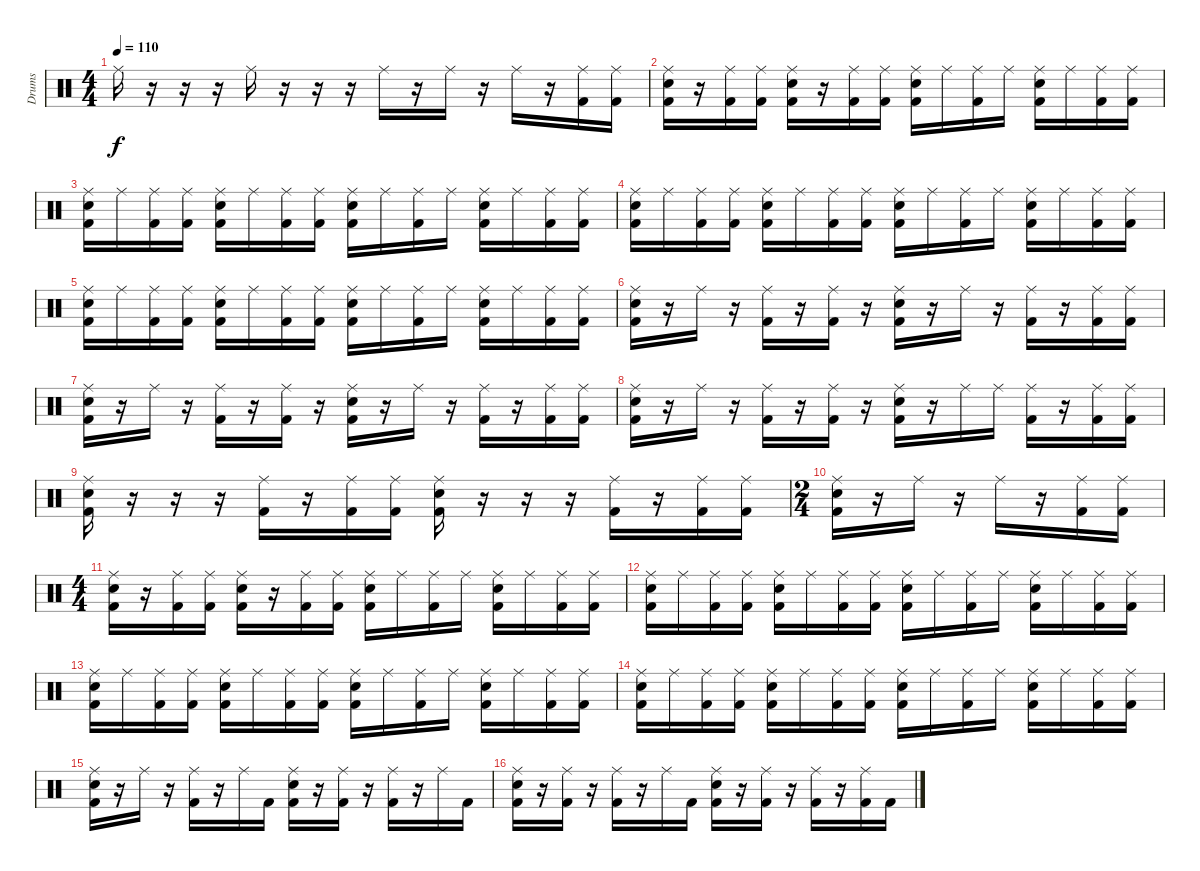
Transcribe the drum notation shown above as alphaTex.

\track ("Drums" "Drums") {instrument percussion}
\staff {score}
\articulation defaults
\ts (4 4)
\tempo 110
\clef neutral
\ks c "Ride (middle)".16{dy f}
r.16 r.16 r.16 "Ride (middle)".16 r.16 r.16 r.16 "Ride (middle)".16 r.16 "Ride (middle)".16 r.16 "Ride (middle)".16 r.16 ("Ride (middle)" "Kick (hit) 2").16 ("Ride (middle)" "Kick (hit) 2").16 |
("Ride (middle)" "Electric Snare (hit)" "Kick (hit) 2").16 r.16 ("Ride (middle)" "Kick (hit) 2").16 ("Ride (middle)" "Kick (hit) 2").16 ("Ride (middle)" "Electric Snare (hit)" "Kick (hit) 2").16 r.16 ("Ride (middle)" "Kick (hit) 2").16 ("Ride (middle)" "Kick (hit) 2").16 ("Ride (middle)" "Electric Snare (hit)" "Kick (hit) 2").16 "Ride (middle)".16 ("Ride (middle)" "Kick (hit) 2").16 "Ride (middle)".16 ("Ride (middle)" "Electric Snare (hit)" "Kick (hit) 2").16 "Ride (middle)".16 ("Ride (middle)" "Kick (hit) 2").16 ("Ride (middle)" "Kick (hit) 2").16 |
("Ride (middle)" "Electric Snare (hit)" "Kick (hit) 2").16 "Ride (middle)".16 ("Ride (middle)" "Kick (hit) 2").16 ("Ride (middle)" "Kick (hit) 2").16 ("Ride (middle)" "Electric Snare (hit)" "Kick (hit) 2").16 "Ride (middle)".16 ("Ride (middle)" "Kick (hit) 2").16 ("Ride (middle)" "Kick (hit) 2").16 ("Ride (middle)" "Electric Snare (hit)" "Kick (hit) 2").16 "Ride (middle)".16 ("Ride (middle)" "Kick (hit) 2").16 "Ride (middle)".16 ("Ride (middle)" "Electric Snare (hit)" "Kick (hit) 2").16 "Ride (middle)".16 ("Ride (middle)" "Kick (hit) 2").16 ("Ride (middle)" "Kick (hit) 2").16 |
("Ride (middle)" "Electric Snare (hit)" "Kick (hit) 2").16 "Ride (middle)".16 ("Ride (middle)" "Kick (hit) 2").16 ("Ride (middle)" "Kick (hit) 2").16 ("Ride (middle)" "Electric Snare (hit)" "Kick (hit) 2").16 "Ride (middle)".16 ("Ride (middle)" "Kick (hit) 2").16 ("Ride (middle)" "Kick (hit) 2").16 ("Ride (middle)" "Electric Snare (hit)" "Kick (hit) 2").16 "Ride (middle)".16 ("Ride (middle)" "Kick (hit) 2").16 "Ride (middle)".16 ("Ride (middle)" "Electric Snare (hit)" "Kick (hit) 2").16 "Ride (middle)".16 ("Ride (middle)" "Kick (hit) 2").16 ("Ride (middle)" "Kick (hit) 2").16 |
("Ride (middle)" "Electric Snare (hit)" "Kick (hit) 2").16 "Ride (middle)".16 ("Ride (middle)" "Kick (hit) 2").16 ("Ride (middle)" "Kick (hit) 2").16 ("Ride (middle)" "Electric Snare (hit)" "Kick (hit) 2").16 "Ride (middle)".16 ("Ride (middle)" "Kick (hit) 2").16 ("Ride (middle)" "Kick (hit) 2").16 ("Ride (middle)" "Electric Snare (hit)" "Kick (hit) 2").16 "Ride (middle)".16 ("Ride (middle)" "Kick (hit) 2").16 "Ride (middle)".16 ("Ride (middle)" "Electric Snare (hit)" "Kick (hit) 2").16 "Ride (middle)".16 ("Ride (middle)" "Kick (hit) 2").16 ("Ride (middle)" "Kick (hit) 2").16 |
("Ride (middle)" "Electric Snare (hit)" "Kick (hit) 2").16 r.16 "Ride (middle)".16 r.16 ("Ride (middle)" "Kick (hit) 2").16 r.16 ("Ride (middle)" "Kick (hit) 2").16 r.16 ("Ride (middle)" "Electric Snare (hit)" "Kick (hit) 2").16 r.16 "Ride (middle)".16 r.16 ("Ride (middle)" "Kick (hit) 2").16 r.16 ("Ride (middle)" "Kick (hit) 2").16 ("Ride (middle)" "Kick (hit) 2").16 |
("Ride (middle)" "Electric Snare (hit)" "Kick (hit) 2").16 r.16 "Ride (middle)".16 r.16 ("Ride (middle)" "Kick (hit) 2").16 r.16 ("Ride (middle)" "Kick (hit) 2").16 r.16 ("Ride (middle)" "Electric Snare (hit)" "Kick (hit) 2").16 r.16 "Ride (middle)".16 r.16 ("Ride (middle)" "Kick (hit) 2").16 r.16 ("Ride (middle)" "Kick (hit) 2").16 ("Ride (middle)" "Kick (hit) 2").16 |
("Ride (middle)" "Electric Snare (hit)" "Kick (hit) 2").16 r.16 "Ride (middle)".16 r.16 ("Ride (middle)" "Kick (hit) 2").16 r.16 ("Ride (middle)" "Kick (hit) 2").16 r.16 ("Ride (middle)" "Electric Snare (hit)" "Kick (hit) 2").16 r.16 "Ride (middle)".16 "Ride (middle)".16 ("Ride (middle)" "Kick (hit) 2").16 r.16 ("Ride (middle)" "Kick (hit) 2").16 ("Ride (middle)" "Kick (hit) 2").16 |
("Ride (middle)" "Electric Snare (hit)" "Kick (hit) 2").16 r.16 r.16 r.16 ("Ride (middle)" "Kick (hit) 2").16 r.16 ("Ride (middle)" "Kick (hit) 2").16 ("Ride (middle)" "Kick (hit) 2").16 ("Ride (middle)" "Electric Snare (hit)" "Kick (hit) 2").16 r.16 r.16 r.16 ("Ride (middle)" "Kick (hit) 2").16 r.16 ("Ride (middle)" "Kick (hit) 2").16 ("Ride (middle)" "Kick (hit) 2").16 |
\ts (2 4)
("Ride (middle)" "Electric Snare (hit)" "Kick (hit) 2").16 r.16 "Ride (middle)".16 r.16 "Ride (middle)".16 r.16 ("Ride (middle)" "Kick (hit) 2").16 ("Ride (middle)" "Kick (hit) 2").16 |
\ts (4 4)
("Ride (middle)" "Electric Snare (hit)" "Kick (hit) 2").16 r.16 ("Ride (middle)" "Kick (hit) 2").16 ("Ride (middle)" "Kick (hit) 2").16 ("Ride (middle)" "Electric Snare (hit)" "Kick (hit) 2").16 r.16 ("Ride (middle)" "Kick (hit) 2").16 ("Ride (middle)" "Kick (hit) 2").16 ("Ride (middle)" "Electric Snare (hit)" "Kick (hit) 2").16 "Ride (middle)".16 ("Ride (middle)" "Kick (hit) 2").16 "Ride (middle)".16 ("Ride (middle)" "Electric Snare (hit)" "Kick (hit) 2").16 "Ride (middle)".16 ("Ride (middle)" "Kick (hit) 2").16 ("Ride (middle)" "Kick (hit) 2").16 |
("Ride (middle)" "Electric Snare (hit)" "Kick (hit) 2").16 "Ride (middle)".16 ("Ride (middle)" "Kick (hit) 2").16 ("Ride (middle)" "Kick (hit) 2").16 ("Ride (middle)" "Electric Snare (hit)" "Kick (hit) 2").16 "Ride (middle)".16 ("Ride (middle)" "Kick (hit) 2").16 ("Ride (middle)" "Kick (hit) 2").16 ("Ride (middle)" "Electric Snare (hit)" "Kick (hit) 2").16 "Ride (middle)".16 ("Ride (middle)" "Kick (hit) 2").16 "Ride (middle)".16 ("Ride (middle)" "Electric Snare (hit)" "Kick (hit) 2").16 "Ride (middle)".16 ("Ride (middle)" "Kick (hit) 2").16 ("Ride (middle)" "Kick (hit) 2").16 |
("Ride (middle)" "Electric Snare (hit)" "Kick (hit) 2").16 "Ride (middle)".16 ("Ride (middle)" "Kick (hit) 2").16 ("Ride (middle)" "Kick (hit) 2").16 ("Ride (middle)" "Electric Snare (hit)" "Kick (hit) 2").16 "Ride (middle)".16 ("Ride (middle)" "Kick (hit) 2").16 ("Ride (middle)" "Kick (hit) 2").16 ("Ride (middle)" "Electric Snare (hit)" "Kick (hit) 2").16 "Ride (middle)".16 ("Ride (middle)" "Kick (hit) 2").16 "Ride (middle)".16 ("Ride (middle)" "Electric Snare (hit)" "Kick (hit) 2").16 "Ride (middle)".16 ("Ride (middle)" "Kick (hit) 2").16 ("Ride (middle)" "Kick (hit) 2").16 |
("Ride (middle)" "Electric Snare (hit)" "Kick (hit) 2").16 "Ride (middle)".16 ("Ride (middle)" "Kick (hit) 2").16 ("Ride (middle)" "Kick (hit) 2").16 ("Ride (middle)" "Electric Snare (hit)" "Kick (hit) 2").16 "Ride (middle)".16 ("Ride (middle)" "Kick (hit) 2").16 ("Ride (middle)" "Kick (hit) 2").16 ("Ride (middle)" "Electric Snare (hit)" "Kick (hit) 2").16 "Ride (middle)".16 ("Ride (middle)" "Kick (hit) 2").16 "Ride (middle)".16 ("Ride (middle)" "Electric Snare (hit)" "Kick (hit) 2").16 "Ride (middle)".16 ("Ride (middle)" "Kick (hit) 2").16 ("Ride (middle)" "Kick (hit) 2").16 |
("Ride (middle)" "Electric Snare (hit)" "Kick (hit) 2").16 r.16 "Ride (middle)".16 r.16 ("Ride (middle)" "Kick (hit) 2").16 r.16 "Ride (middle)".16 "Kick (hit) 2".16 ("Ride (middle)" "Electric Snare (hit)" "Kick (hit) 2").16 r.16 ("Ride (middle)" "Kick (hit) 2").16 r.16 ("Ride (middle)" "Kick (hit) 2").16 r.16 "Ride (middle)".16 "Kick (hit) 2".16 |
("Ride (middle)" "Electric Snare (hit)" "Kick (hit) 2").16 r.16 ("Ride (middle)" "Kick (hit) 2").16 r.16 ("Ride (middle)" "Kick (hit) 2").16 r.16 "Ride (middle)".16 "Kick (hit) 2".16 ("Ride (middle)" "Electric Snare (hit)" "Kick (hit) 2").16 r.16 ("Ride (middle)" "Kick (hit) 2").16 r.16 ("Ride (middle)" "Kick (hit) 2").16 r.16 ("Ride (middle)" "Kick (hit) 2").16 "Kick (hit) 2".16
